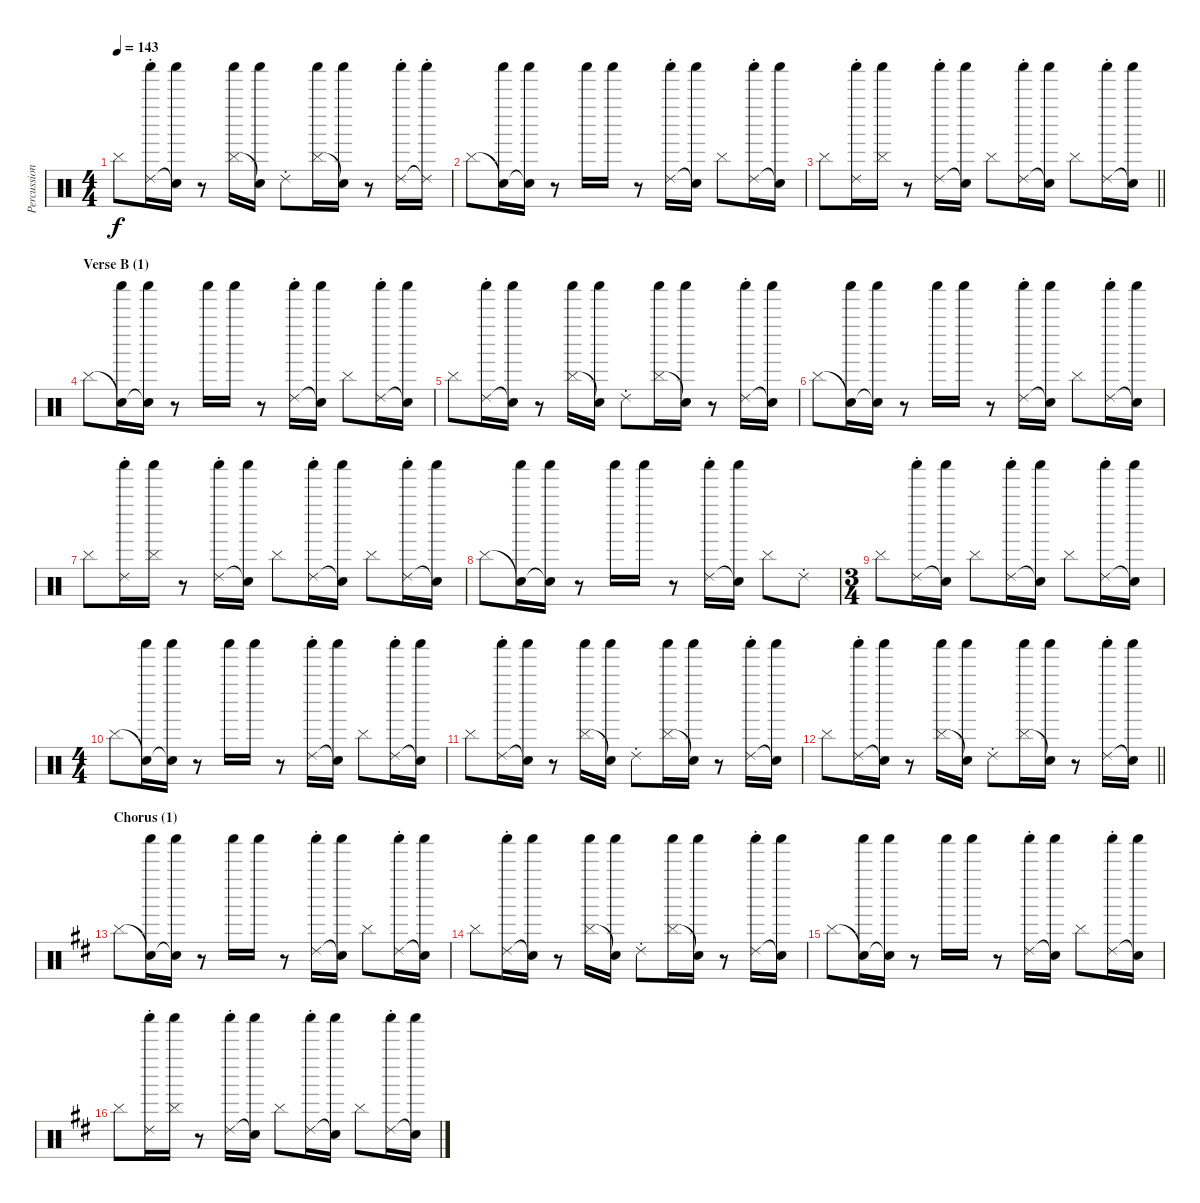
\track ("Percussion" "Percussion") {instrument percussion}
\staff {score}
\articulation defaults
\ts (4 4)
\tempo 143
\clef neutral
\ks aminor "Cymbal (hit)".8{dy f}
("Ride (choke) 2" "Shaker (hit)").16 ("Snare (hit)"{t} "Shaker (hit)").16 r.8 ("Cymbal (hit)" "Shaker (hit)").16 ("Snare (hit)"{t} "Shaker (hit)").16 "Ride (choke) 2".8 ("Cymbal (hit)" "Shaker (hit)").16 ("Snare (hit)"{t} "Shaker (hit)").16 r.8 ("Ride (choke) 2" "Shaker (hit)").16 ("Ride (choke) 2"{t} "Shaker (hit)").16 |
"Cymbal (hit)".8 ("Snare (hit)"{t} "Shaker (hit)").16 ("Snare (hit)"{t} "Shaker (hit)").16 r.8 "Shaker (hit)".16 "Shaker (hit)".16 r.8 ("Ride (choke) 2" "Shaker (hit)").16 ("Snare (hit)"{t} "Shaker (hit)").16 "Cymbal (hit)".8 ("Ride (choke) 2" "Shaker (hit)").16 ("Snare (hit)"{t} "Shaker (hit)").16 |
\barLineRight lightlight "Cymbal (hit)".8
("Ride (choke) 2" "Shaker (hit)").16 ("Cymbal (hit)" "Shaker (hit)").16 r.8 ("Ride (choke) 2" "Shaker (hit)").16 ("Snare (hit)"{t} "Shaker (hit)").16 "Cymbal (hit)".8 ("Ride (choke) 2" "Shaker (hit)").16 ("Snare (hit)"{t} "Shaker (hit)").16 "Cymbal (hit)".8 ("Ride (choke) 2" "Shaker (hit)").16 ("Snare (hit)"{t} "Shaker (hit)").16 |
\section ("" "Verse B (1)")
"Cymbal (hit)".8 ("Snare (hit)"{t} "Shaker (hit)").16 ("Snare (hit)"{t} "Shaker (hit)").16 r.8 "Shaker (hit)".16 "Shaker (hit)".16 r.8 ("Ride (choke) 2" "Shaker (hit)").16 ("Snare (hit)"{t} "Shaker (hit)").16 "Cymbal (hit)".8 ("Ride (choke) 2" "Shaker (hit)").16 ("Snare (hit)"{t} "Shaker (hit)").16 |
"Cymbal (hit)".8 ("Ride (choke) 2" "Shaker (hit)").16 ("Snare (hit)"{t} "Shaker (hit)").16 r.8 ("Cymbal (hit)" "Shaker (hit)").16 ("Snare (hit)"{t} "Shaker (hit)").16 "Ride (choke) 2".8 ("Cymbal (hit)" "Shaker (hit)").16 ("Snare (hit)"{t} "Shaker (hit)").16 r.8 ("Ride (choke) 2" "Shaker (hit)").16 ("Snare (hit)"{t} "Shaker (hit)").16 |
"Cymbal (hit)".8 ("Snare (hit)"{t} "Shaker (hit)").16 ("Snare (hit)"{t} "Shaker (hit)").16 r.8 "Shaker (hit)".16 "Shaker (hit)".16 r.8 ("Ride (choke) 2" "Shaker (hit)").16 ("Snare (hit)"{t} "Shaker (hit)").16 "Cymbal (hit)".8 ("Ride (choke) 2" "Shaker (hit)").16 ("Snare (hit)"{t} "Shaker (hit)").16 |
"Cymbal (hit)".8 ("Ride (choke) 2" "Shaker (hit)").16 ("Cymbal (hit)" "Shaker (hit)").16 r.8 ("Ride (choke) 2" "Shaker (hit)").16 ("Snare (hit)"{t} "Shaker (hit)").16 "Cymbal (hit)".8 ("Ride (choke) 2" "Shaker (hit)").16 ("Snare (hit)"{t} "Shaker (hit)").16 "Cymbal (hit)".8 ("Ride (choke) 2" "Shaker (hit)").16 ("Snare (hit)"{t} "Shaker (hit)").16 |
"Cymbal (hit)".8 ("Snare (hit)"{t} "Shaker (hit)").16 ("Snare (hit)"{t} "Shaker (hit)").16 r.8 "Shaker (hit)".16 "Shaker (hit)".16 r.8 ("Ride (choke) 2" "Shaker (hit)").16 ("Snare (hit)"{t} "Shaker (hit)").16 "Cymbal (hit)".8 "Ride (choke) 2".8 |
\ts (3 4)
"Cymbal (hit)".8 ("Ride (choke) 2" "Shaker (hit)").16 ("Snare (hit)"{t} "Shaker (hit)").16 "Cymbal (hit)".8 ("Ride (choke) 2" "Shaker (hit)").16 ("Snare (hit)"{t} "Shaker (hit)").16 "Cymbal (hit)".8 ("Ride (choke) 2" "Shaker (hit)").16 ("Snare (hit)"{t} "Shaker (hit)").16 |
\ts (4 4)
"Cymbal (hit)".8 ("Snare (hit)"{t} "Shaker (hit)").16 ("Snare (hit)"{t} "Shaker (hit)").16 r.8 "Shaker (hit)".16 "Shaker (hit)".16 r.8 ("Ride (choke) 2" "Shaker (hit)").16 ("Snare (hit)"{t} "Shaker (hit)").16 "Cymbal (hit)".8 ("Ride (choke) 2" "Shaker (hit)").16 ("Snare (hit)"{t} "Shaker (hit)").16 |
"Cymbal (hit)".8 ("Ride (choke) 2" "Shaker (hit)").16 ("Snare (hit)"{t} "Shaker (hit)").16 r.8 ("Cymbal (hit)" "Shaker (hit)").16 ("Snare (hit)"{t} "Shaker (hit)").16 "Ride (choke) 2".8 ("Cymbal (hit)" "Shaker (hit)").16 ("Snare (hit)"{t} "Shaker (hit)").16 r.8 ("Ride (choke) 2" "Shaker (hit)").16 ("Snare (hit)"{t} "Shaker (hit)").16 |
\barLineRight lightlight "Cymbal (hit)".8
("Ride (choke) 2" "Shaker (hit)").16 ("Snare (hit)"{t} "Shaker (hit)").16 r.8 ("Cymbal (hit)" "Shaker (hit)").16 ("Snare (hit)"{t} "Shaker (hit)").16 "Ride (choke) 2".8 ("Cymbal (hit)" "Shaker (hit)").16 ("Snare (hit)"{t} "Shaker (hit)").16 r.8 ("Ride (choke) 2" "Shaker (hit)").16 ("Snare (hit)"{t} "Shaker (hit)").16 |
\section ("" "Chorus (1)")
\ks d "Cymbal (hit)".8
("Snare (hit)"{t} "Shaker (hit)").16 ("Snare (hit)"{t} "Shaker (hit)").16 r.8 "Shaker (hit)".16 "Shaker (hit)".16 r.8 ("Ride (choke) 2" "Shaker (hit)").16 ("Snare (hit)"{t} "Shaker (hit)").16 "Cymbal (hit)".8 ("Ride (choke) 2" "Shaker (hit)").16 ("Snare (hit)"{t} "Shaker (hit)").16 |
"Cymbal (hit)".8 ("Ride (choke) 2" "Shaker (hit)").16 ("Snare (hit)"{t} "Shaker (hit)").16 r.8 ("Cymbal (hit)" "Shaker (hit)").16 ("Snare (hit)"{t} "Shaker (hit)").16 "Ride (choke) 2".8 ("Cymbal (hit)" "Shaker (hit)").16 ("Snare (hit)"{t} "Shaker (hit)").16 r.8 ("Ride (choke) 2" "Shaker (hit)").16 ("Snare (hit)"{t} "Shaker (hit)").16 |
"Cymbal (hit)".8 ("Snare (hit)"{t} "Shaker (hit)").16 ("Snare (hit)"{t} "Shaker (hit)").16 r.8 "Shaker (hit)".16 "Shaker (hit)".16 r.8 ("Ride (choke) 2" "Shaker (hit)").16 ("Snare (hit)"{t} "Shaker (hit)").16 "Cymbal (hit)".8 ("Ride (choke) 2" "Shaker (hit)").16 ("Snare (hit)"{t} "Shaker (hit)").16 |
"Cymbal (hit)".8 ("Ride (choke) 2" "Shaker (hit)").16 ("Cymbal (hit)" "Shaker (hit)").16 r.8 ("Ride (choke) 2" "Shaker (hit)").16 ("Snare (hit)"{t} "Shaker (hit)").16 "Cymbal (hit)".8 ("Ride (choke) 2" "Shaker (hit)").16 ("Snare (hit)"{t} "Shaker (hit)").16 "Cymbal (hit)".8 ("Ride (choke) 2" "Shaker (hit)").16 ("Snare (hit)"{t} "Shaker (hit)").16
